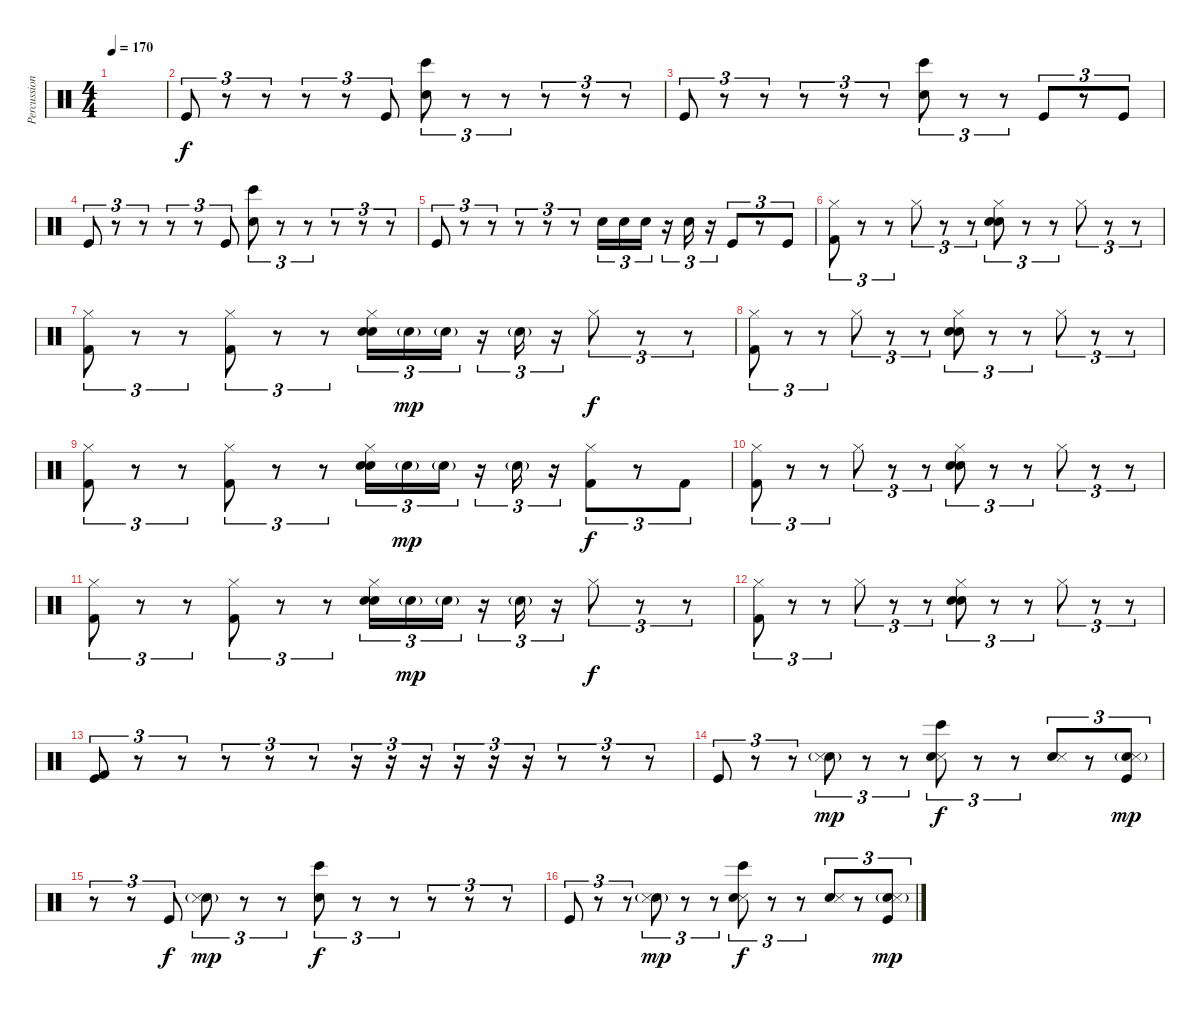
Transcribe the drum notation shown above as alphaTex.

\track ("Percussion" "Percussion") {instrument percussion}
\staff {score}
\articulation defaults
\ts (4 4)
\tempo 170
\clef neutral
\ks c
|
"Kick (hit)".8{tu (3 2)} r.8{tu (3 2)} r.8{tu (3 2)} r.8{tu (3 2)} r.8{tu (3 2)} "Kick (hit)".8{tu (3 2)} ("Bongo High (hit)" "Hand Clap (hit)").8{tu (3 2)} r.8{tu (3 2)} r.8{tu (3 2)} r.8{tu (3 2)} r.8{tu (3 2)} r.8{tu (3 2)} |
"Kick (hit)".8{tu (3 2)} r.8{tu (3 2)} r.8{tu (3 2)} r.8{tu (3 2)} r.8{tu (3 2)} r.8{tu (3 2)} ("Bongo High (hit)" "Hand Clap (hit)").8{tu (3 2)} r.8{tu (3 2)} r.8{tu (3 2)} "Kick (hit)".8{tu (3 2)} r.8{tu (3 2)} "Kick (hit)".8{tu (3 2)} |
"Kick (hit)".8{tu (3 2)} r.8{tu (3 2)} r.8{tu (3 2)} r.8{tu (3 2)} r.8{tu (3 2)} "Kick (hit)".8{tu (3 2)} ("Bongo High (hit)" "Hand Clap (hit)").8{tu (3 2)} r.8{tu (3 2)} r.8{tu (3 2)} r.8{tu (3 2)} r.8{tu (3 2)} r.8{tu (3 2)} |
"Kick (hit)".8{tu (3 2)} r.8{tu (3 2)} r.8{tu (3 2)} r.8{tu (3 2)} r.8{tu (3 2)} r.8{tu (3 2)} "Electric Snare (hit)".16{tu (3 2)} "Electric Snare (hit)".16{tu (3 2)} "Electric Snare (hit)".16{tu (3 2)} r.16{tu (3 2)} "Electric Snare (hit)".16{tu (3 2)} r.16{tu (3 2)} "Kick (hit)".8{tu (3 2)} r.8{tu (3 2)} "Kick (hit)".8{tu (3 2)} |
("Hi-Hat (closed)" "Kick (hit) 2").8{tu (3 2)} r.8{tu (3 2)} r.8{tu (3 2)} "Hi-Hat (closed)".8{tu (3 2)} r.8{tu (3 2)} r.8{tu (3 2)} ("Hi-Hat (closed)" "Hand Clap (hit)" "Electric Snare (hit)").8{tu (3 2)} r.8{tu (3 2)} r.8{tu (3 2)} "Hi-Hat (closed)".8{tu (3 2)} r.8{tu (3 2)} r.8{tu (3 2)} |
("Hi-Hat (closed)" "Kick (hit) 2").8{tu (3 2)} r.8{tu (3 2)} r.8{tu (3 2)} ("Hi-Hat (closed)" "Kick (hit) 2").8{tu (3 2)} r.8{tu (3 2)} r.8{tu (3 2)} ("Hi-Hat (closed)" "Hand Clap (hit)" "Electric Snare (hit)").16{tu (3 2)} "Electric Snare (hit)"{g}.16{tu (3 2) dy mp} "Electric Snare (hit)"{g}.16{tu (3 2)} r.16{tu (3 2)} "Electric Snare (hit)"{g}.16{tu (3 2)} r.16{tu (3 2)} "Hi-Hat (closed)".8{tu (3 2) dy f} r.8{tu (3 2)} r.8{tu (3 2)} |
("Hi-Hat (closed)" "Kick (hit) 2").8{tu (3 2)} r.8{tu (3 2)} r.8{tu (3 2)} "Hi-Hat (closed)".8{tu (3 2)} r.8{tu (3 2)} r.8{tu (3 2)} ("Hi-Hat (closed)" "Hand Clap (hit)" "Electric Snare (hit)").8{tu (3 2)} r.8{tu (3 2)} r.8{tu (3 2)} "Hi-Hat (closed)".8{tu (3 2)} r.8{tu (3 2)} r.8{tu (3 2)} |
("Hi-Hat (closed)" "Kick (hit) 2").8{tu (3 2)} r.8{tu (3 2)} r.8{tu (3 2)} ("Hi-Hat (closed)" "Kick (hit) 2").8{tu (3 2)} r.8{tu (3 2)} r.8{tu (3 2)} ("Hi-Hat (closed)" "Hand Clap (hit)" "Electric Snare (hit)").16{tu (3 2)} "Electric Snare (hit)"{g}.16{tu (3 2) dy mp} "Electric Snare (hit)"{g}.16{tu (3 2)} r.16{tu (3 2)} "Electric Snare (hit)"{g}.16{tu (3 2)} r.16{tu (3 2)} ("Hi-Hat (closed)" "Kick (hit) 2").8{tu (3 2) dy f} r.8{tu (3 2)} "Kick (hit) 2".8{tu (3 2)} |
("Hi-Hat (closed)" "Kick (hit) 2").8{tu (3 2)} r.8{tu (3 2)} r.8{tu (3 2)} "Hi-Hat (closed)".8{tu (3 2)} r.8{tu (3 2)} r.8{tu (3 2)} ("Hi-Hat (closed)" "Hand Clap (hit)" "Electric Snare (hit)").8{tu (3 2)} r.8{tu (3 2)} r.8{tu (3 2)} "Hi-Hat (closed)".8{tu (3 2)} r.8{tu (3 2)} r.8{tu (3 2)} |
("Hi-Hat (closed)" "Kick (hit) 2").8{tu (3 2)} r.8{tu (3 2)} r.8{tu (3 2)} ("Hi-Hat (closed)" "Kick (hit) 2").8{tu (3 2)} r.8{tu (3 2)} r.8{tu (3 2)} ("Hi-Hat (closed)" "Hand Clap (hit)" "Electric Snare (hit)").16{tu (3 2)} "Electric Snare (hit)"{g}.16{tu (3 2) dy mp} "Electric Snare (hit)"{g}.16{tu (3 2)} r.16{tu (3 2)} "Electric Snare (hit)"{g}.16{tu (3 2)} r.16{tu (3 2)} "Hi-Hat (closed)".8{tu (3 2) dy f} r.8{tu (3 2)} r.8{tu (3 2)} |
("Hi-Hat (closed)" "Kick (hit) 2").8{tu (3 2)} r.8{tu (3 2)} r.8{tu (3 2)} "Hi-Hat (closed)".8{tu (3 2)} r.8{tu (3 2)} r.8{tu (3 2)} ("Hi-Hat (closed)" "Hand Clap (hit)" "Electric Snare (hit)").8{tu (3 2)} r.8{tu (3 2)} r.8{tu (3 2)} "Hi-Hat (closed)".8{tu (3 2)} r.8{tu (3 2)} r.8{tu (3 2)} |
("Kick (hit)" "Kick (hit) 2").8{tu (3 2)} r.8{tu (3 2)} r.8{tu (3 2)} r.8{tu (3 2)} r.8{tu (3 2)} r.8{tu (3 2)} r.16{tu (3 2)} r.16{tu (3 2)} r.16{tu (3 2)} r.16{tu (3 2)} r.16{tu (3 2)} r.16{tu (3 2)} r.8{tu (3 2)} r.8{tu (3 2)} r.8{tu (3 2)} |
"Kick (hit)".8{tu (3 2)} r.8{tu (3 2)} r.8{tu (3 2)} ("Hand Clap (hit)"{g} "Snare (side stick) 3"{g}).8{tu (3 2) dy mp} r.8{tu (3 2)} r.8{tu (3 2)} ("Snare (side stick) 3" "Hand Clap (hit)" "Bongo High (hit)").8{tu (3 2) dy f} r.8{tu (3 2)} r.8{tu (3 2)} ("Hand Clap (hit)" "Snare (side stick) 3").8{tu (3 2)} r.8{tu (3 2)} ("Hand Clap (hit)"{g} "Snare (side stick) 3"{g} "Kick (hit)").8{tu (3 2) dy mp} |
r.8{tu (3 2)} r.8{tu (3 2)} "Kick (hit)".8{tu (3 2) dy f} ("Hand Clap (hit)"{g} "Snare (side stick) 3"{g}).8{tu (3 2) dy mp} r.8{tu (3 2)} r.8{tu (3 2)} ("Hand Clap (hit)" "Bongo High (hit)").8{tu (3 2) dy f} r.8{tu (3 2)} r.8{tu (3 2)} r.8{tu (3 2)} r.8{tu (3 2)} r.8{tu (3 2)} |
"Kick (hit)".8{tu (3 2)} r.8{tu (3 2)} r.8{tu (3 2)} ("Hand Clap (hit)"{g} "Snare (side stick) 3"{g}).8{tu (3 2) dy mp} r.8{tu (3 2)} r.8{tu (3 2)} ("Snare (side stick) 3" "Hand Clap (hit)" "Bongo High (hit)").8{tu (3 2) dy f} r.8{tu (3 2)} r.8{tu (3 2)} ("Hand Clap (hit)" "Snare (side stick) 3").8{tu (3 2)} r.8{tu (3 2)} ("Hand Clap (hit)"{g} "Snare (side stick) 3"{g} "Kick (hit)").8{tu (3 2) dy mp}
